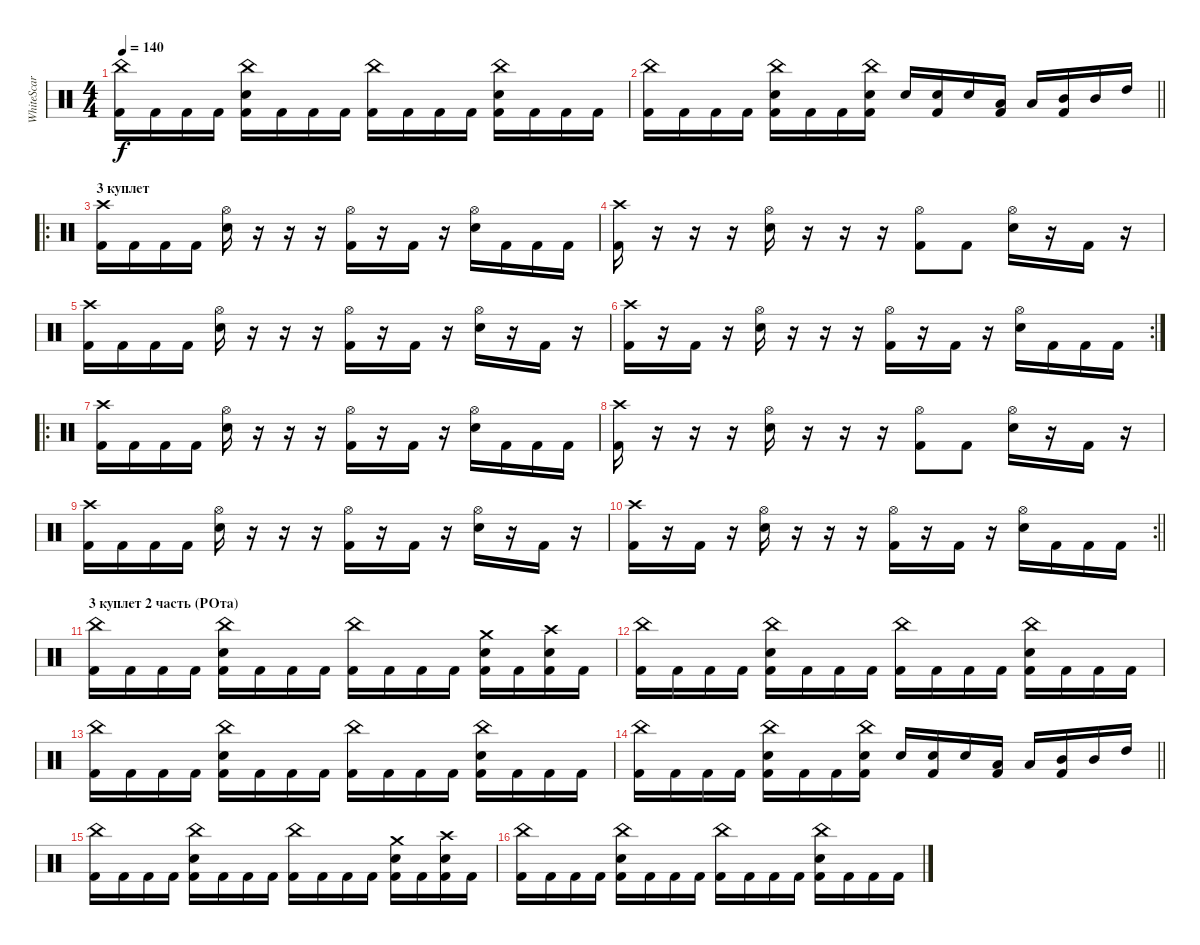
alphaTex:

\track ("WhiteScar " "WhiteScar ") {instrument percussion}
\staff {score}
\articulation defaults
\ts (4 4)
\tempo 140
\clef neutral
\ks c
("China (hit)" "Kick (hit) 2").16{dy f} "Kick (hit) 2".16 "Kick (hit) 2".16 "Kick (hit) 2".16 ("China (hit)" "Snare (hit) 2" "Kick (hit) 2").16 "Kick (hit) 2".16 "Kick (hit) 2".16 "Kick (hit) 2".16 ("China (hit)" "Kick (hit) 2").16 "Kick (hit) 2".16 "Kick (hit) 2".16 "Kick (hit) 2".16 ("China (hit)" "Snare (hit) 2" "Kick (hit) 2").16 "Kick (hit) 2".16 "Kick (hit) 2".16 "Kick (hit) 2".16 |
\barLineRight lightlight
("China (hit)" "Kick (hit) 2").16 "Kick (hit) 2".16 "Kick (hit) 2".16 "Kick (hit) 2".16 ("China (hit)" "Snare (hit) 2" "Kick (hit) 2").16 "Kick (hit) 2".16 "Kick (hit) 2".16 ("China (hit)" "Snare (hit) 2" "Kick (hit) 2").16 "Snare (hit) 2".16 ("Snare (hit) 2" "Kick (hit) 2").16 "Snare (hit) 2".16 ("Low Tom (hit)" "Kick (hit) 2").16 "Low Tom (hit)".16 ("Mid Tom (hit)" "Kick (hit) 2").16 "Mid Tom (hit)".16 "High Tom (hit)".16 |
\ro
\section ("" "3 куплет")
("Crash high (hit)" "Kick (hit) 2").16 "Kick (hit) 2".16 "Kick (hit) 2".16 "Kick (hit) 2".16 ("Hi-Hat (open)" "Snare (hit) 2").16 r.16 r.16 r.16 ("Hi-Hat (open)" "Kick (hit) 2").16 r.16 "Kick (hit) 2".16 r.16 ("Hi-Hat (open)" "Snare (hit) 2").16 "Kick (hit) 2".16 "Kick (hit) 2".16 "Kick (hit) 2".16 |
("Crash high (hit)" "Kick (hit) 2").16 r.16 r.16 r.16 ("Hi-Hat (open)" "Snare (hit) 2").16 r.16 r.16 r.16 ("Hi-Hat (open)" "Kick (hit) 2").8 "Kick (hit) 2".8 ("Hi-Hat (open)" "Snare (hit) 2").16 r.16 "Kick (hit) 2".16 r.16 |
("Crash high (hit)" "Kick (hit) 2").16 "Kick (hit) 2".16 "Kick (hit) 2".16 "Kick (hit) 2".16 ("Hi-Hat (open)" "Snare (hit) 2").16 r.16 r.16 r.16 ("Hi-Hat (open)" "Kick (hit) 2").16 r.16 "Kick (hit) 2".16 r.16 ("Hi-Hat (open)" "Snare (hit) 2").16 r.16 "Kick (hit) 2".16 r.16 |
\rc 2
("Crash high (hit)" "Kick (hit) 2").16 r.16 "Kick (hit) 2".16 r.16 ("Hi-Hat (open)" "Snare (hit) 2").16 r.16 r.16 r.16 ("Hi-Hat (open)" "Kick (hit) 2").16 r.16 "Kick (hit) 2".16 r.16 ("Hi-Hat (open)" "Snare (hit) 2").16 "Kick (hit) 2".16 "Kick (hit) 2".16 "Kick (hit) 2".16 |
\ro
("Crash high (hit)" "Kick (hit) 2").16 "Kick (hit) 2".16 "Kick (hit) 2".16 "Kick (hit) 2".16 ("Hi-Hat (open)" "Snare (hit) 2").16 r.16 r.16 r.16 ("Hi-Hat (open)" "Kick (hit) 2").16 r.16 "Kick (hit) 2".16 r.16 ("Hi-Hat (open)" "Snare (hit) 2").16 "Kick (hit) 2".16 "Kick (hit) 2".16 "Kick (hit) 2".16 |
("Crash high (hit)" "Kick (hit) 2").16 r.16 r.16 r.16 ("Hi-Hat (open)" "Snare (hit) 2").16 r.16 r.16 r.16 ("Hi-Hat (open)" "Kick (hit) 2").8 "Kick (hit) 2".8 ("Hi-Hat (open)" "Snare (hit) 2").16 r.16 "Kick (hit) 2".16 r.16 |
("Crash high (hit)" "Kick (hit) 2").16 "Kick (hit) 2".16 "Kick (hit) 2".16 "Kick (hit) 2".16 ("Hi-Hat (open)" "Snare (hit) 2").16 r.16 r.16 r.16 ("Hi-Hat (open)" "Kick (hit) 2").16 r.16 "Kick (hit) 2".16 r.16 ("Hi-Hat (open)" "Snare (hit) 2").16 r.16 "Kick (hit) 2".16 r.16 |
\rc 2
\barLineRight lightlight
("Crash high (hit)" "Kick (hit) 2").16 r.16 "Kick (hit) 2".16 r.16 ("Hi-Hat (open)" "Snare (hit) 2").16 r.16 r.16 r.16 ("Hi-Hat (open)" "Kick (hit) 2").16 r.16 "Kick (hit) 2".16 r.16 ("Hi-Hat (open)" "Snare (hit) 2").16 "Kick (hit) 2".16 "Kick (hit) 2".16 "Kick (hit) 2".16 |
\section ("" "3 куплет 2 часть (РОта)")
("China (hit)" "Kick (hit) 2").16 "Kick (hit) 2".16 "Kick (hit) 2".16 "Kick (hit) 2".16 ("China (hit)" "Snare (hit) 2" "Kick (hit) 2").16 "Kick (hit) 2".16 "Kick (hit) 2".16 "Kick (hit) 2".16 ("China (hit)" "Kick (hit) 2").16 "Kick (hit) 2".16 "Kick (hit) 2".16 "Kick (hit) 2".16 ("Crash medium (hit)" "Snare (hit) 2" "Kick (hit) 2").16 "Kick (hit) 2".16 ("Crash high (hit)" "Snare (hit) 2" "Kick (hit) 2").16 "Kick (hit) 2".16 |
("China (hit)" "Kick (hit) 2").16 "Kick (hit) 2".16 "Kick (hit) 2".16 "Kick (hit) 2".16 ("China (hit)" "Snare (hit) 2" "Kick (hit) 2").16 "Kick (hit) 2".16 "Kick (hit) 2".16 "Kick (hit) 2".16 ("China (hit)" "Kick (hit) 2").16 "Kick (hit) 2".16 "Kick (hit) 2".16 "Kick (hit) 2".16 ("China (hit)" "Snare (hit) 2" "Kick (hit) 2").16 "Kick (hit) 2".16 "Kick (hit) 2".16 "Kick (hit) 2".16 |
("China (hit)" "Kick (hit) 2").16 "Kick (hit) 2".16 "Kick (hit) 2".16 "Kick (hit) 2".16 ("China (hit)" "Snare (hit) 2" "Kick (hit) 2").16 "Kick (hit) 2".16 "Kick (hit) 2".16 "Kick (hit) 2".16 ("China (hit)" "Kick (hit) 2").16 "Kick (hit) 2".16 "Kick (hit) 2".16 "Kick (hit) 2".16 ("China (hit)" "Snare (hit) 2" "Kick (hit) 2").16 "Kick (hit) 2".16 "Kick (hit) 2".16 "Kick (hit) 2".16 |
\barLineRight lightlight
("China (hit)" "Kick (hit) 2").16 "Kick (hit) 2".16 "Kick (hit) 2".16 "Kick (hit) 2".16 ("China (hit)" "Snare (hit) 2" "Kick (hit) 2").16 "Kick (hit) 2".16 "Kick (hit) 2".16 ("China (hit)" "Snare (hit) 2" "Kick (hit) 2").16 "Snare (hit) 2".16 ("Snare (hit) 2" "Kick (hit) 2").16 "Snare (hit) 2".16 ("Low Tom (hit)" "Kick (hit) 2").16 "Low Tom (hit)".16 ("Mid Tom (hit)" "Kick (hit) 2").16 "Mid Tom (hit)".16 "High Tom (hit)".16 |
("China (hit)" "Kick (hit) 2").16 "Kick (hit) 2".16 "Kick (hit) 2".16 "Kick (hit) 2".16 ("China (hit)" "Snare (hit) 2" "Kick (hit) 2").16 "Kick (hit) 2".16 "Kick (hit) 2".16 "Kick (hit) 2".16 ("China (hit)" "Kick (hit) 2").16 "Kick (hit) 2".16 "Kick (hit) 2".16 "Kick (hit) 2".16 ("Crash medium (hit)" "Snare (hit) 2" "Kick (hit) 2").16 "Kick (hit) 2".16 ("Crash high (hit)" "Snare (hit) 2" "Kick (hit) 2").16 "Kick (hit) 2".16 |
("China (hit)" "Kick (hit) 2").16 "Kick (hit) 2".16 "Kick (hit) 2".16 "Kick (hit) 2".16 ("China (hit)" "Snare (hit) 2" "Kick (hit) 2").16 "Kick (hit) 2".16 "Kick (hit) 2".16 "Kick (hit) 2".16 ("China (hit)" "Kick (hit) 2").16 "Kick (hit) 2".16 "Kick (hit) 2".16 "Kick (hit) 2".16 ("China (hit)" "Snare (hit) 2" "Kick (hit) 2").16 "Kick (hit) 2".16 "Kick (hit) 2".16 "Kick (hit) 2".16
